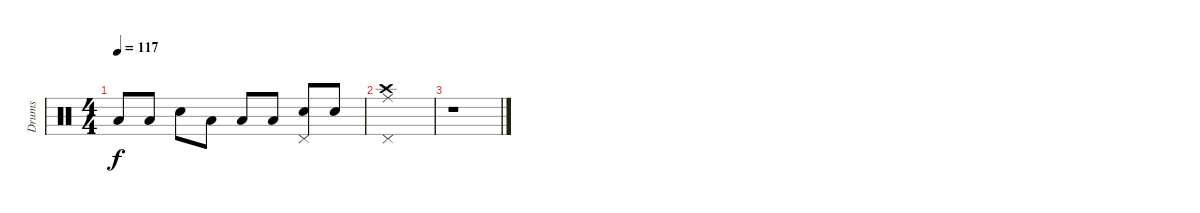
\track ("Drums" "Drums") {instrument percussion}
\staff {score}
\articulation defaults
\ts (4 4)
\tempo 117
\clef neutral
\ks c "Low Tom (hit)".8{dy f} "Low Tom (hit)".8 "Snare (hit) 2".8 "Low Tom (hit)".8 "Low Tom (hit)".8 "Low Tom (hit)".8
("Snare (hit) 2" "Pedal Hi-Hat (hit)").8 "Snare (hit) 2".8 |
("Crash high (hit)" "Ride (middle)" "Pedal Hi-Hat (hit)").1 |
r.1
